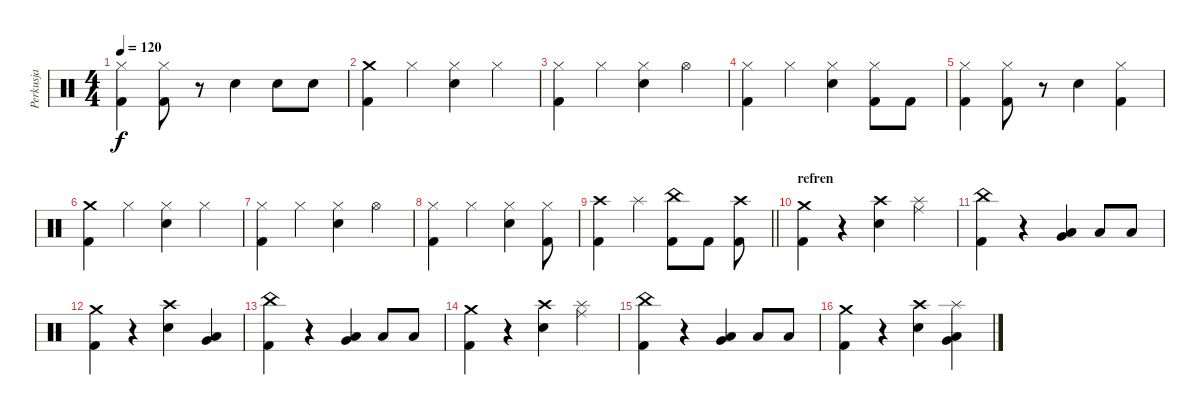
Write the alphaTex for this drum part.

\track ("Perkusja" "Perkusja") {instrument percussion}
\staff {score}
\articulation defaults
\ts (4 4)
\tempo 120
\clef neutral
\ks c
("Hi-Hat (closed)" "Kick (hit) 2").4{dy f} ("Hi-Hat (closed)" "Kick (hit) 2").8 r.8 "Snare (hit) 2".4 "Snare (hit) 2".8 "Snare (hit) 2".8 |
("Crash medium (hit)" "Kick (hit) 2").4 "Hi-Hat (closed)".4 ("Hi-Hat (closed)" "Snare (hit) 2").4 "Hi-Hat (closed)".4 |
("Hi-Hat (closed)" "Kick (hit) 2").4 "Hi-Hat (closed)".4 ("Hi-Hat (closed)" "Snare (hit) 2").4 "Hi-Hat (open)".4 |
("Hi-Hat (closed)" "Kick (hit) 2").4 "Hi-Hat (closed)".4 ("Hi-Hat (closed)" "Snare (hit) 2").4 ("Hi-Hat (closed)" "Kick (hit) 2").8 "Kick (hit) 2".8 |
("Hi-Hat (closed)" "Kick (hit) 2").4 ("Hi-Hat (closed)" "Kick (hit) 2").8 r.8 "Snare (hit) 2".4 ("Hi-Hat (closed)" "Kick (hit) 2").4 |
("Crash medium (hit)" "Kick (hit) 2").4 "Hi-Hat (closed)".4 ("Hi-Hat (closed)" "Snare (hit) 2").4 "Hi-Hat (closed)".4 |
("Hi-Hat (closed)" "Kick (hit) 2").4 "Hi-Hat (closed)".4 ("Hi-Hat (closed)" "Snare (hit) 2").4 "Hi-Hat (open)".4 |
("Hi-Hat (closed)" "Kick (hit) 2").4 "Hi-Hat (closed)".4 ("Hi-Hat (closed)" "Snare (hit) 2").4 ("Hi-Hat (closed)" "Kick (hit) 2").8 |
\barLineRight lightlight
("Kick (hit) 2" "Crash high (hit)").4 "Splash (hit)".4 ("Kick (hit) 2" "China (hit)").8 "Kick (hit) 2".8 ("Kick (hit) 2" "Crash high (hit)").8 |
\section ("" "refren")
("Crash medium (hit)" "Kick (hit) 2").4 r.4 ("Crash high (hit)" "Snare (hit) 2").4 ("Splash (hit)" "Ride (middle)").4 |
("China (hit)" "Kick (hit) 2").4 r.4 ("Very Low Tom (hit)" "Low Floor Tom (hit)").4 "Low Floor Tom (hit)".8 "Low Floor Tom (hit)".8 |
("Crash medium (hit)" "Kick (hit) 2").4 r.4 ("Crash high (hit)" "Snare (hit) 2").4 ("Very Low Tom (hit)" "Low Floor Tom (hit)").4 |
("China (hit)" "Kick (hit) 2").4 r.4 ("Very Low Tom (hit)" "Low Floor Tom (hit)").4 "Low Floor Tom (hit)".8 "Low Floor Tom (hit)".8 |
("Crash medium (hit)" "Kick (hit) 2").4 r.4 ("Crash high (hit)" "Snare (hit) 2").4 ("Splash (hit)" "Ride (middle)").4 |
("China (hit)" "Kick (hit) 2").4 r.4 ("Very Low Tom (hit)" "Low Floor Tom (hit)").4 "Low Floor Tom (hit)".8 "Low Floor Tom (hit)".8 |
("Crash medium (hit)" "Kick (hit) 2").4 r.4 ("Crash high (hit)" "Snare (hit) 2").4 ("Splash (hit)" "Very Low Tom (hit)" "Low Floor Tom (hit)").4
